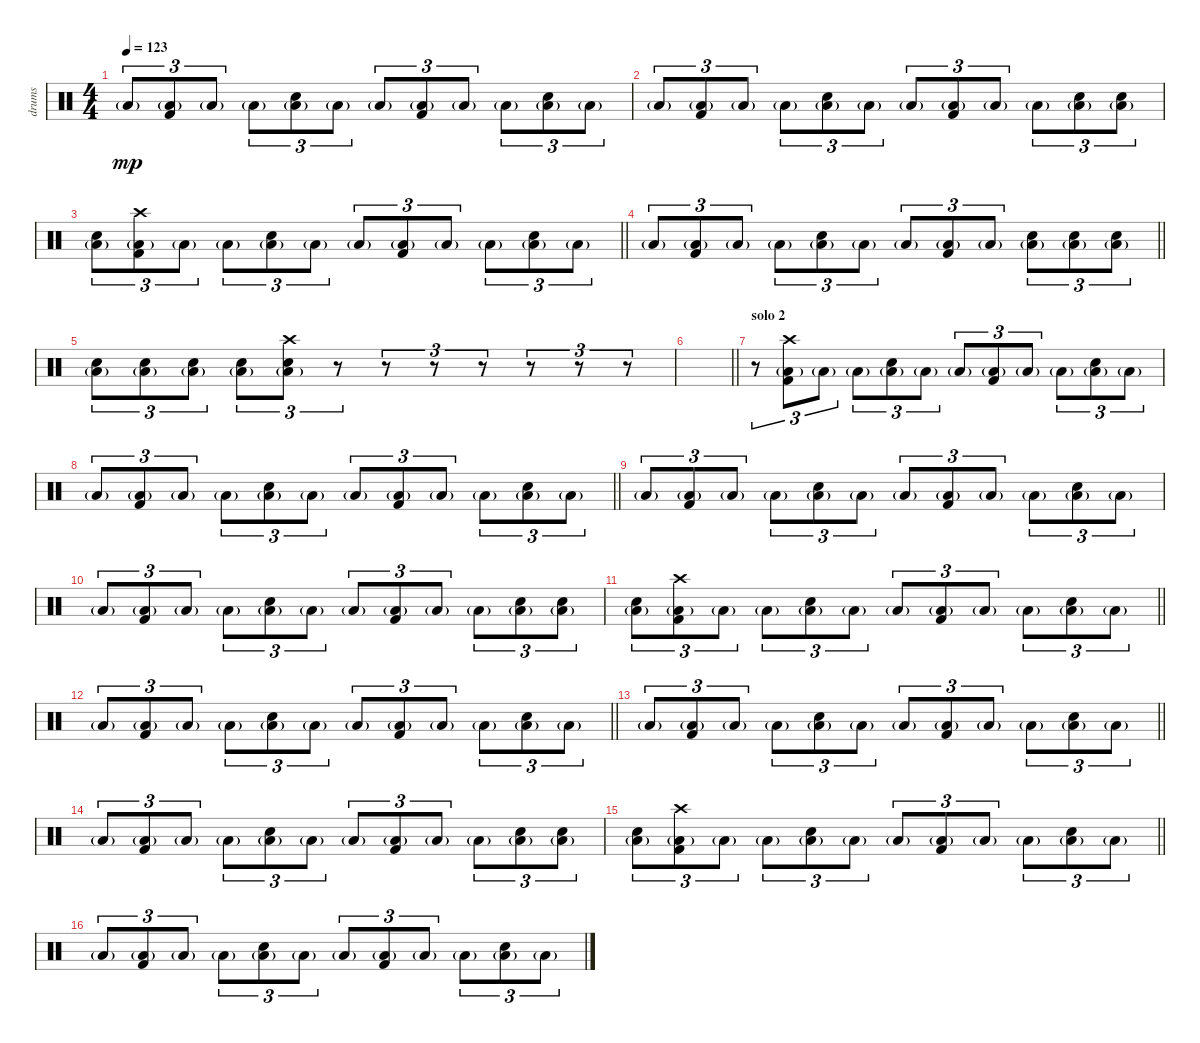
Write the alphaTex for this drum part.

\track ("drums" "drums") {instrument percussion}
\staff {score}
\articulation defaults
\ts (4 4)
\tempo 123
\clef neutral
\ks c "Low Floor Tom (hit)"{g}.8{tu (3 2) dy mp}
("Low Floor Tom (hit)"{g} "Kick (hit) 2").8{tu (3 2)} "Low Floor Tom (hit)"{g}.8{tu (3 2)} "Low Floor Tom (hit)"{g}.8{tu (3 2)} ("Low Floor Tom (hit)"{g} "Electric Snare (hit)").8{tu (3 2)} "Low Floor Tom (hit)"{g}.8{tu (3 2)} "Low Floor Tom (hit)"{g}.8{tu (3 2)} ("Low Floor Tom (hit)"{g} "Kick (hit) 2").8{tu (3 2)} "Low Floor Tom (hit)"{g}.8{tu (3 2)} "Low Floor Tom (hit)"{g}.8{tu (3 2)} ("Low Floor Tom (hit)"{g} "Electric Snare (hit)").8{tu (3 2)} "Low Floor Tom (hit)"{g}.8{tu (3 2)} |
"Low Floor Tom (hit)"{g}.8{tu (3 2)} ("Low Floor Tom (hit)"{g} "Kick (hit) 2").8{tu (3 2)} "Low Floor Tom (hit)"{g}.8{tu (3 2)} "Low Floor Tom (hit)"{g}.8{tu (3 2)} ("Low Floor Tom (hit)"{g} "Electric Snare (hit)").8{tu (3 2)} "Low Floor Tom (hit)"{g}.8{tu (3 2)} "Low Floor Tom (hit)"{g}.8{tu (3 2)} ("Low Floor Tom (hit)"{g} "Kick (hit) 2").8{tu (3 2)} "Low Floor Tom (hit)"{g}.8{tu (3 2)} "Low Floor Tom (hit)"{g}.8{tu (3 2)} ("Low Floor Tom (hit)"{g} "Electric Snare (hit)").8{tu (3 2)} ("Low Floor Tom (hit)"{g} "Electric Snare (hit)").8{tu (3 2)} |
\barLineRight lightlight
("Low Floor Tom (hit)"{g} "Electric Snare (hit)").8{tu (3 2)} ("Low Floor Tom (hit)"{g} "Kick (hit) 2" "Crash high (hit)").8{tu (3 2)} "Low Floor Tom (hit)"{g}.8{tu (3 2)} "Low Floor Tom (hit)"{g}.8{tu (3 2)} ("Low Floor Tom (hit)"{g} "Electric Snare (hit)").8{tu (3 2)} "Low Floor Tom (hit)"{g}.8{tu (3 2)} "Low Floor Tom (hit)"{g}.8{tu (3 2)} ("Low Floor Tom (hit)"{g} "Kick (hit) 2").8{tu (3 2)} "Low Floor Tom (hit)"{g}.8{tu (3 2)} "Low Floor Tom (hit)"{g}.8{tu (3 2)} ("Low Floor Tom (hit)"{g} "Electric Snare (hit)").8{tu (3 2)} "Low Floor Tom (hit)"{g}.8{tu (3 2)} |
\barLineRight lightlight "Low Floor Tom (hit)"{g}.8{tu (3 2)}
("Low Floor Tom (hit)"{g} "Kick (hit) 2").8{tu (3 2)} "Low Floor Tom (hit)"{g}.8{tu (3 2)} "Low Floor Tom (hit)"{g}.8{tu (3 2)} ("Low Floor Tom (hit)"{g} "Electric Snare (hit)").8{tu (3 2)} "Low Floor Tom (hit)"{g}.8{tu (3 2)} "Low Floor Tom (hit)"{g}.8{tu (3 2)} ("Low Floor Tom (hit)"{g} "Kick (hit) 2").8{tu (3 2)} "Low Floor Tom (hit)"{g}.8{tu (3 2)} ("Low Floor Tom (hit)"{g} "Electric Snare (hit)").8{tu (3 2)} ("Low Floor Tom (hit)"{g} "Electric Snare (hit)").8{tu (3 2)} ("Low Floor Tom (hit)"{g} "Electric Snare (hit)").8{tu (3 2)} |
("Low Floor Tom (hit)"{g} "Electric Snare (hit)").8{tu (3 2)} ("Low Floor Tom (hit)"{g} "Electric Snare (hit)").8{tu (3 2)} ("Low Floor Tom (hit)"{g} "Electric Snare (hit)").8{tu (3 2)} ("Low Floor Tom (hit)"{g} "Electric Snare (hit)").8{tu (3 2)} ("Low Floor Tom (hit)"{g} "Electric Snare (hit)" "Crash high (hit)").8{tu (3 2)} r.8{tu (3 2)} r.8{tu (3 2)} r.8{tu (3 2)} r.8{tu (3 2)} r.8{tu (3 2)} r.8{tu (3 2)} r.8{tu (3 2)} |
\barLineRight lightlight
|
\section ("" "solo 2")
r.8{tu (3 2)} ("Low Floor Tom (hit)"{g} "Kick (hit) 2" "Crash high (hit)").8{tu (3 2)} "Low Floor Tom (hit)"{g}.8{tu (3 2)} "Low Floor Tom (hit)"{g}.8{tu (3 2)} ("Low Floor Tom (hit)"{g} "Electric Snare (hit)").8{tu (3 2)} "Low Floor Tom (hit)"{g}.8{tu (3 2)} "Low Floor Tom (hit)"{g}.8{tu (3 2)} ("Low Floor Tom (hit)"{g} "Kick (hit) 2").8{tu (3 2)} "Low Floor Tom (hit)"{g}.8{tu (3 2)} "Low Floor Tom (hit)"{g}.8{tu (3 2)} ("Low Floor Tom (hit)"{g} "Electric Snare (hit)").8{tu (3 2)} "Low Floor Tom (hit)"{g}.8{tu (3 2)} |
\barLineRight lightlight "Low Floor Tom (hit)"{g}.8{tu (3 2)}
("Low Floor Tom (hit)"{g} "Kick (hit) 2").8{tu (3 2)} "Low Floor Tom (hit)"{g}.8{tu (3 2)} "Low Floor Tom (hit)"{g}.8{tu (3 2)} ("Low Floor Tom (hit)"{g} "Electric Snare (hit)").8{tu (3 2)} "Low Floor Tom (hit)"{g}.8{tu (3 2)} "Low Floor Tom (hit)"{g}.8{tu (3 2)} ("Low Floor Tom (hit)"{g} "Kick (hit) 2").8{tu (3 2)} "Low Floor Tom (hit)"{g}.8{tu (3 2)} "Low Floor Tom (hit)"{g}.8{tu (3 2)} ("Low Floor Tom (hit)"{g} "Electric Snare (hit)").8{tu (3 2)} "Low Floor Tom (hit)"{g}.8{tu (3 2)} |
"Low Floor Tom (hit)"{g}.8{tu (3 2)} ("Low Floor Tom (hit)"{g} "Kick (hit) 2").8{tu (3 2)} "Low Floor Tom (hit)"{g}.8{tu (3 2)} "Low Floor Tom (hit)"{g}.8{tu (3 2)} ("Low Floor Tom (hit)"{g} "Electric Snare (hit)").8{tu (3 2)} "Low Floor Tom (hit)"{g}.8{tu (3 2)} "Low Floor Tom (hit)"{g}.8{tu (3 2)} ("Low Floor Tom (hit)"{g} "Kick (hit) 2").8{tu (3 2)} "Low Floor Tom (hit)"{g}.8{tu (3 2)} "Low Floor Tom (hit)"{g}.8{tu (3 2)} ("Low Floor Tom (hit)"{g} "Electric Snare (hit)").8{tu (3 2)} "Low Floor Tom (hit)"{g}.8{tu (3 2)} |
"Low Floor Tom (hit)"{g}.8{tu (3 2)} ("Low Floor Tom (hit)"{g} "Kick (hit) 2").8{tu (3 2)} "Low Floor Tom (hit)"{g}.8{tu (3 2)} "Low Floor Tom (hit)"{g}.8{tu (3 2)} ("Low Floor Tom (hit)"{g} "Electric Snare (hit)").8{tu (3 2)} "Low Floor Tom (hit)"{g}.8{tu (3 2)} "Low Floor Tom (hit)"{g}.8{tu (3 2)} ("Low Floor Tom (hit)"{g} "Kick (hit) 2").8{tu (3 2)} "Low Floor Tom (hit)"{g}.8{tu (3 2)} "Low Floor Tom (hit)"{g}.8{tu (3 2)} ("Low Floor Tom (hit)"{g} "Electric Snare (hit)").8{tu (3 2)} ("Low Floor Tom (hit)"{g} "Electric Snare (hit)").8{tu (3 2)} |
\barLineRight lightlight
("Low Floor Tom (hit)"{g} "Electric Snare (hit)").8{tu (3 2)} ("Low Floor Tom (hit)"{g} "Kick (hit) 2" "Crash high (hit)").8{tu (3 2)} "Low Floor Tom (hit)"{g}.8{tu (3 2)} "Low Floor Tom (hit)"{g}.8{tu (3 2)} ("Low Floor Tom (hit)"{g} "Electric Snare (hit)").8{tu (3 2)} "Low Floor Tom (hit)"{g}.8{tu (3 2)} "Low Floor Tom (hit)"{g}.8{tu (3 2)} ("Low Floor Tom (hit)"{g} "Kick (hit) 2").8{tu (3 2)} "Low Floor Tom (hit)"{g}.8{tu (3 2)} "Low Floor Tom (hit)"{g}.8{tu (3 2)} ("Low Floor Tom (hit)"{g} "Electric Snare (hit)").8{tu (3 2)} "Low Floor Tom (hit)"{g}.8{tu (3 2)} |
\barLineRight lightlight "Low Floor Tom (hit)"{g}.8{tu (3 2)}
("Low Floor Tom (hit)"{g} "Kick (hit) 2").8{tu (3 2)} "Low Floor Tom (hit)"{g}.8{tu (3 2)} "Low Floor Tom (hit)"{g}.8{tu (3 2)} ("Low Floor Tom (hit)"{g} "Electric Snare (hit)").8{tu (3 2)} "Low Floor Tom (hit)"{g}.8{tu (3 2)} "Low Floor Tom (hit)"{g}.8{tu (3 2)} ("Low Floor Tom (hit)"{g} "Kick (hit) 2").8{tu (3 2)} "Low Floor Tom (hit)"{g}.8{tu (3 2)} "Low Floor Tom (hit)"{g}.8{tu (3 2)} ("Low Floor Tom (hit)"{g} "Electric Snare (hit)").8{tu (3 2)} "Low Floor Tom (hit)"{g}.8{tu (3 2)} |
\barLineRight lightlight "Low Floor Tom (hit)"{g}.8{tu (3 2)}
("Low Floor Tom (hit)"{g} "Kick (hit) 2").8{tu (3 2)} "Low Floor Tom (hit)"{g}.8{tu (3 2)} "Low Floor Tom (hit)"{g}.8{tu (3 2)} ("Low Floor Tom (hit)"{g} "Electric Snare (hit)").8{tu (3 2)} "Low Floor Tom (hit)"{g}.8{tu (3 2)} "Low Floor Tom (hit)"{g}.8{tu (3 2)} ("Low Floor Tom (hit)"{g} "Kick (hit) 2").8{tu (3 2)} "Low Floor Tom (hit)"{g}.8{tu (3 2)} "Low Floor Tom (hit)"{g}.8{tu (3 2)} ("Low Floor Tom (hit)"{g} "Electric Snare (hit)").8{tu (3 2)} "Low Floor Tom (hit)"{g}.8{tu (3 2)} |
"Low Floor Tom (hit)"{g}.8{tu (3 2)} ("Low Floor Tom (hit)"{g} "Kick (hit) 2").8{tu (3 2)} "Low Floor Tom (hit)"{g}.8{tu (3 2)} "Low Floor Tom (hit)"{g}.8{tu (3 2)} ("Low Floor Tom (hit)"{g} "Electric Snare (hit)").8{tu (3 2)} "Low Floor Tom (hit)"{g}.8{tu (3 2)} "Low Floor Tom (hit)"{g}.8{tu (3 2)} ("Low Floor Tom (hit)"{g} "Kick (hit) 2").8{tu (3 2)} "Low Floor Tom (hit)"{g}.8{tu (3 2)} "Low Floor Tom (hit)"{g}.8{tu (3 2)} ("Low Floor Tom (hit)"{g} "Electric Snare (hit)").8{tu (3 2)} ("Low Floor Tom (hit)"{g} "Electric Snare (hit)").8{tu (3 2)} |
\barLineRight lightlight
("Low Floor Tom (hit)"{g} "Electric Snare (hit)").8{tu (3 2)} ("Low Floor Tom (hit)"{g} "Kick (hit) 2" "Crash high (hit)").8{tu (3 2)} "Low Floor Tom (hit)"{g}.8{tu (3 2)} "Low Floor Tom (hit)"{g}.8{tu (3 2)} ("Low Floor Tom (hit)"{g} "Electric Snare (hit)").8{tu (3 2)} "Low Floor Tom (hit)"{g}.8{tu (3 2)} "Low Floor Tom (hit)"{g}.8{tu (3 2)} ("Low Floor Tom (hit)"{g} "Kick (hit) 2").8{tu (3 2)} "Low Floor Tom (hit)"{g}.8{tu (3 2)} "Low Floor Tom (hit)"{g}.8{tu (3 2)} ("Low Floor Tom (hit)"{g} "Electric Snare (hit)").8{tu (3 2)} "Low Floor Tom (hit)"{g}.8{tu (3 2)} |
"Low Floor Tom (hit)"{g}.8{tu (3 2)} ("Low Floor Tom (hit)"{g} "Kick (hit) 2").8{tu (3 2)} "Low Floor Tom (hit)"{g}.8{tu (3 2)} "Low Floor Tom (hit)"{g}.8{tu (3 2)} ("Low Floor Tom (hit)"{g} "Electric Snare (hit)").8{tu (3 2)} "Low Floor Tom (hit)"{g}.8{tu (3 2)} "Low Floor Tom (hit)"{g}.8{tu (3 2)} ("Low Floor Tom (hit)"{g} "Kick (hit) 2").8{tu (3 2)} "Low Floor Tom (hit)"{g}.8{tu (3 2)} "Low Floor Tom (hit)"{g}.8{tu (3 2)} ("Low Floor Tom (hit)"{g} "Electric Snare (hit)").8{tu (3 2)} "Low Floor Tom (hit)"{g}.8{tu (3 2)}
